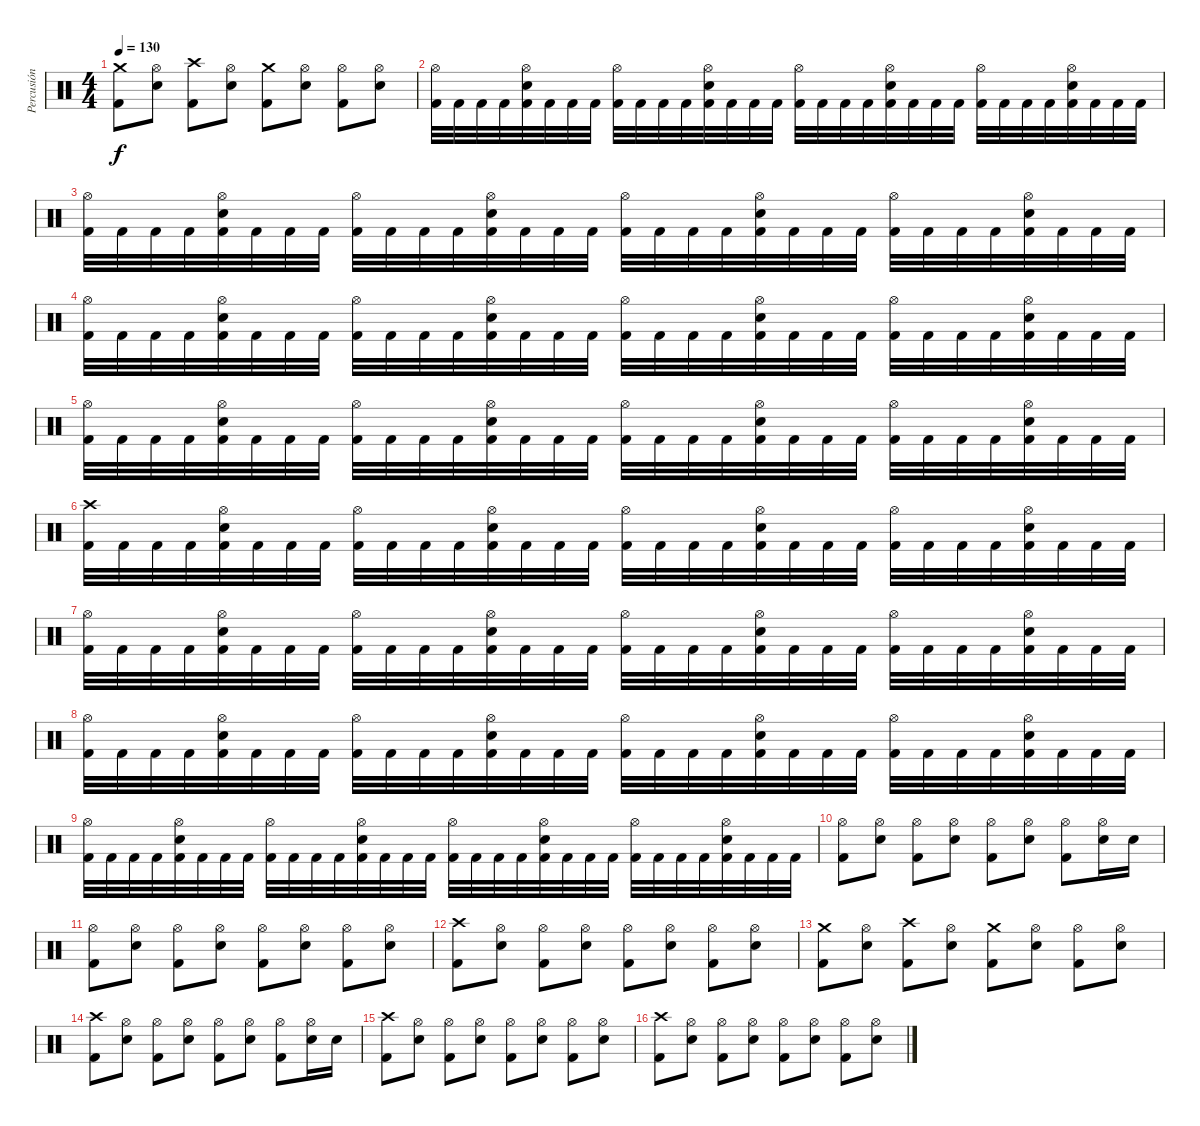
\track ("Percusión" "Percusión") {instrument percussion}
\staff {score}
\articulation defaults
\ts (4 4)
\tempo 130
\clef neutral
\ks c
("Crash medium (hit)" "Kick (hit) 2").8{dy f} ("Hi-Hat (open)" "Snare (hit) 2").8 ("Crash high (hit)" "Kick (hit) 2").8 ("Hi-Hat (open)" "Snare (hit) 2").8 ("Crash medium (hit)" "Kick (hit) 2").8 ("Hi-Hat (open)" "Snare (hit) 2").8 ("Hi-Hat (open)" "Kick (hit) 2").8 ("Hi-Hat (open)" "Snare (hit) 2").8 |
("Hi-Hat (open)" "Kick (hit) 2").32 "Kick (hit) 2".32 "Kick (hit) 2".32 "Kick (hit) 2".32 ("Hi-Hat (open)" "Snare (hit) 2" "Kick (hit) 2").32 "Kick (hit) 2".32 "Kick (hit) 2".32 "Kick (hit) 2".32 ("Hi-Hat (open)" "Kick (hit) 2").32 "Kick (hit) 2".32 "Kick (hit) 2".32 "Kick (hit) 2".32 ("Hi-Hat (open)" "Snare (hit) 2" "Kick (hit) 2").32 "Kick (hit) 2".32 "Kick (hit) 2".32 "Kick (hit) 2".32 ("Hi-Hat (open)" "Kick (hit) 2").32 "Kick (hit) 2".32 "Kick (hit) 2".32 "Kick (hit) 2".32 ("Hi-Hat (open)" "Snare (hit) 2" "Kick (hit) 2").32 "Kick (hit) 2".32 "Kick (hit) 2".32 "Kick (hit) 2".32 ("Hi-Hat (open)" "Kick (hit) 2").32 "Kick (hit) 2".32 "Kick (hit) 2".32 "Kick (hit) 2".32 ("Hi-Hat (open)" "Snare (hit) 2" "Kick (hit) 2").32 "Kick (hit) 2".32 "Kick (hit) 2".32 "Kick (hit) 2".32 |
("Hi-Hat (open)" "Kick (hit) 2").32 "Kick (hit) 2".32 "Kick (hit) 2".32 "Kick (hit) 2".32 ("Hi-Hat (open)" "Snare (hit) 2" "Kick (hit) 2").32 "Kick (hit) 2".32 "Kick (hit) 2".32 "Kick (hit) 2".32 ("Hi-Hat (open)" "Kick (hit) 2").32 "Kick (hit) 2".32 "Kick (hit) 2".32 "Kick (hit) 2".32 ("Hi-Hat (open)" "Snare (hit) 2" "Kick (hit) 2").32 "Kick (hit) 2".32 "Kick (hit) 2".32 "Kick (hit) 2".32 ("Hi-Hat (open)" "Kick (hit) 2").32 "Kick (hit) 2".32 "Kick (hit) 2".32 "Kick (hit) 2".32 ("Hi-Hat (open)" "Snare (hit) 2" "Kick (hit) 2").32 "Kick (hit) 2".32 "Kick (hit) 2".32 "Kick (hit) 2".32 ("Hi-Hat (open)" "Kick (hit) 2").32 "Kick (hit) 2".32 "Kick (hit) 2".32 "Kick (hit) 2".32 ("Hi-Hat (open)" "Snare (hit) 2" "Kick (hit) 2").32 "Kick (hit) 2".32 "Kick (hit) 2".32 "Kick (hit) 2".32 |
("Hi-Hat (open)" "Kick (hit) 2").32 "Kick (hit) 2".32 "Kick (hit) 2".32 "Kick (hit) 2".32 ("Hi-Hat (open)" "Snare (hit) 2" "Kick (hit) 2").32 "Kick (hit) 2".32 "Kick (hit) 2".32 "Kick (hit) 2".32 ("Hi-Hat (open)" "Kick (hit) 2").32 "Kick (hit) 2".32 "Kick (hit) 2".32 "Kick (hit) 2".32 ("Hi-Hat (open)" "Snare (hit) 2" "Kick (hit) 2").32 "Kick (hit) 2".32 "Kick (hit) 2".32 "Kick (hit) 2".32 ("Hi-Hat (open)" "Kick (hit) 2").32 "Kick (hit) 2".32 "Kick (hit) 2".32 "Kick (hit) 2".32 ("Hi-Hat (open)" "Snare (hit) 2" "Kick (hit) 2").32 "Kick (hit) 2".32 "Kick (hit) 2".32 "Kick (hit) 2".32 ("Hi-Hat (open)" "Kick (hit) 2").32 "Kick (hit) 2".32 "Kick (hit) 2".32 "Kick (hit) 2".32 ("Hi-Hat (open)" "Snare (hit) 2" "Kick (hit) 2").32 "Kick (hit) 2".32 "Kick (hit) 2".32 "Kick (hit) 2".32 |
("Hi-Hat (open)" "Kick (hit) 2").32 "Kick (hit) 2".32 "Kick (hit) 2".32 "Kick (hit) 2".32 ("Hi-Hat (open)" "Snare (hit) 2" "Kick (hit) 2").32 "Kick (hit) 2".32 "Kick (hit) 2".32 "Kick (hit) 2".32 ("Hi-Hat (open)" "Kick (hit) 2").32 "Kick (hit) 2".32 "Kick (hit) 2".32 "Kick (hit) 2".32 ("Hi-Hat (open)" "Snare (hit) 2" "Kick (hit) 2").32 "Kick (hit) 2".32 "Kick (hit) 2".32 "Kick (hit) 2".32 ("Hi-Hat (open)" "Kick (hit) 2").32 "Kick (hit) 2".32 "Kick (hit) 2".32 "Kick (hit) 2".32 ("Hi-Hat (open)" "Snare (hit) 2" "Kick (hit) 2").32 "Kick (hit) 2".32 "Kick (hit) 2".32 "Kick (hit) 2".32 ("Hi-Hat (open)" "Kick (hit) 2").32 "Kick (hit) 2".32 "Kick (hit) 2".32 "Kick (hit) 2".32 ("Hi-Hat (open)" "Snare (hit) 2" "Kick (hit) 2").32 "Kick (hit) 2".32 "Kick (hit) 2".32 "Kick (hit) 2".32 |
("Crash high (hit)" "Kick (hit) 2").32 "Kick (hit) 2".32 "Kick (hit) 2".32 "Kick (hit) 2".32 ("Hi-Hat (open)" "Snare (hit) 2" "Kick (hit) 2").32 "Kick (hit) 2".32 "Kick (hit) 2".32 "Kick (hit) 2".32 ("Hi-Hat (open)" "Kick (hit) 2").32 "Kick (hit) 2".32 "Kick (hit) 2".32 "Kick (hit) 2".32 ("Hi-Hat (open)" "Snare (hit) 2" "Kick (hit) 2").32 "Kick (hit) 2".32 "Kick (hit) 2".32 "Kick (hit) 2".32 ("Hi-Hat (open)" "Kick (hit) 2").32 "Kick (hit) 2".32 "Kick (hit) 2".32 "Kick (hit) 2".32 ("Hi-Hat (open)" "Snare (hit) 2" "Kick (hit) 2").32 "Kick (hit) 2".32 "Kick (hit) 2".32 "Kick (hit) 2".32 ("Hi-Hat (open)" "Kick (hit) 2").32 "Kick (hit) 2".32 "Kick (hit) 2".32 "Kick (hit) 2".32 ("Hi-Hat (open)" "Snare (hit) 2" "Kick (hit) 2").32 "Kick (hit) 2".32 "Kick (hit) 2".32 "Kick (hit) 2".32 |
("Hi-Hat (open)" "Kick (hit) 2").32 "Kick (hit) 2".32 "Kick (hit) 2".32 "Kick (hit) 2".32 ("Hi-Hat (open)" "Snare (hit) 2" "Kick (hit) 2").32 "Kick (hit) 2".32 "Kick (hit) 2".32 "Kick (hit) 2".32 ("Hi-Hat (open)" "Kick (hit) 2").32 "Kick (hit) 2".32 "Kick (hit) 2".32 "Kick (hit) 2".32 ("Hi-Hat (open)" "Snare (hit) 2" "Kick (hit) 2").32 "Kick (hit) 2".32 "Kick (hit) 2".32 "Kick (hit) 2".32 ("Hi-Hat (open)" "Kick (hit) 2").32 "Kick (hit) 2".32 "Kick (hit) 2".32 "Kick (hit) 2".32 ("Hi-Hat (open)" "Snare (hit) 2" "Kick (hit) 2").32 "Kick (hit) 2".32 "Kick (hit) 2".32 "Kick (hit) 2".32 ("Hi-Hat (open)" "Kick (hit) 2").32 "Kick (hit) 2".32 "Kick (hit) 2".32 "Kick (hit) 2".32 ("Hi-Hat (open)" "Snare (hit) 2" "Kick (hit) 2").32 "Kick (hit) 2".32 "Kick (hit) 2".32 "Kick (hit) 2".32 |
("Hi-Hat (open)" "Kick (hit) 2").32 "Kick (hit) 2".32 "Kick (hit) 2".32 "Kick (hit) 2".32 ("Hi-Hat (open)" "Snare (hit) 2" "Kick (hit) 2").32 "Kick (hit) 2".32 "Kick (hit) 2".32 "Kick (hit) 2".32 ("Hi-Hat (open)" "Kick (hit) 2").32 "Kick (hit) 2".32 "Kick (hit) 2".32 "Kick (hit) 2".32 ("Hi-Hat (open)" "Snare (hit) 2" "Kick (hit) 2").32 "Kick (hit) 2".32 "Kick (hit) 2".32 "Kick (hit) 2".32 ("Hi-Hat (open)" "Kick (hit) 2").32 "Kick (hit) 2".32 "Kick (hit) 2".32 "Kick (hit) 2".32 ("Hi-Hat (open)" "Snare (hit) 2" "Kick (hit) 2").32 "Kick (hit) 2".32 "Kick (hit) 2".32 "Kick (hit) 2".32 ("Hi-Hat (open)" "Kick (hit) 2").32 "Kick (hit) 2".32 "Kick (hit) 2".32 "Kick (hit) 2".32 ("Hi-Hat (open)" "Snare (hit) 2" "Kick (hit) 2").32 "Kick (hit) 2".32 "Kick (hit) 2".32 "Kick (hit) 2".32 |
("Hi-Hat (open)" "Kick (hit) 2").32 "Kick (hit) 2".32 "Kick (hit) 2".32 "Kick (hit) 2".32 ("Hi-Hat (open)" "Snare (hit) 2" "Kick (hit) 2").32 "Kick (hit) 2".32 "Kick (hit) 2".32 "Kick (hit) 2".32 ("Hi-Hat (open)" "Kick (hit) 2").32 "Kick (hit) 2".32 "Kick (hit) 2".32 "Kick (hit) 2".32 ("Hi-Hat (open)" "Snare (hit) 2" "Kick (hit) 2").32 "Kick (hit) 2".32 "Kick (hit) 2".32 "Kick (hit) 2".32 ("Hi-Hat (open)" "Kick (hit) 2").32 "Kick (hit) 2".32 "Kick (hit) 2".32 "Kick (hit) 2".32 ("Hi-Hat (open)" "Snare (hit) 2" "Kick (hit) 2").32 "Kick (hit) 2".32 "Kick (hit) 2".32 "Kick (hit) 2".32 ("Hi-Hat (open)" "Kick (hit) 2").32 "Kick (hit) 2".32 "Kick (hit) 2".32 "Kick (hit) 2".32 ("Hi-Hat (open)" "Snare (hit) 2" "Kick (hit) 2").32 "Kick (hit) 2".32 "Kick (hit) 2".32 "Kick (hit) 2".32 |
("Hi-Hat (open)" "Kick (hit) 2").8 ("Hi-Hat (open)" "Snare (hit) 2").8 ("Hi-Hat (open)" "Kick (hit) 2").8 ("Hi-Hat (open)" "Snare (hit) 2").8 ("Hi-Hat (open)" "Kick (hit) 2").8 ("Hi-Hat (open)" "Snare (hit) 2").8 ("Hi-Hat (open)" "Kick (hit) 2").8 ("Hi-Hat (open)" "Snare (hit) 2").16 "Snare (hit) 2".16 |
("Hi-Hat (open)" "Kick (hit) 2").8 ("Hi-Hat (open)" "Snare (hit) 2").8 ("Hi-Hat (open)" "Kick (hit) 2").8 ("Hi-Hat (open)" "Snare (hit) 2").8 ("Hi-Hat (open)" "Kick (hit) 2").8 ("Hi-Hat (open)" "Snare (hit) 2").8 ("Hi-Hat (open)" "Kick (hit) 2").8 ("Hi-Hat (open)" "Snare (hit) 2").8 |
("Crash high (hit)" "Kick (hit) 2").8 ("Hi-Hat (open)" "Snare (hit) 2").8 ("Hi-Hat (open)" "Kick (hit) 2").8 ("Hi-Hat (open)" "Snare (hit) 2").8 ("Hi-Hat (open)" "Kick (hit) 2").8 ("Hi-Hat (open)" "Snare (hit) 2").8 ("Hi-Hat (open)" "Kick (hit) 2").8 ("Hi-Hat (open)" "Snare (hit) 2").8 |
("Crash medium (hit)" "Kick (hit) 2").8 ("Hi-Hat (open)" "Snare (hit) 2").8 ("Crash high (hit)" "Kick (hit) 2").8 ("Hi-Hat (open)" "Snare (hit) 2").8 ("Crash medium (hit)" "Kick (hit) 2").8 ("Hi-Hat (open)" "Snare (hit) 2").8 ("Hi-Hat (open)" "Kick (hit) 2").8 ("Hi-Hat (open)" "Snare (hit) 2").8 |
("Crash high (hit)" "Kick (hit) 2").8 ("Hi-Hat (open)" "Snare (hit) 2").8 ("Hi-Hat (open)" "Kick (hit) 2").8 ("Hi-Hat (open)" "Snare (hit) 2").8 ("Hi-Hat (open)" "Kick (hit) 2").8 ("Hi-Hat (open)" "Snare (hit) 2").8 ("Hi-Hat (open)" "Kick (hit) 2").8 ("Hi-Hat (open)" "Snare (hit) 2").16 "Snare (hit) 2".16 |
("Crash high (hit)" "Kick (hit) 2").8 ("Hi-Hat (open)" "Snare (hit) 2").8 ("Hi-Hat (open)" "Kick (hit) 2").8 ("Hi-Hat (open)" "Snare (hit) 2").8 ("Hi-Hat (open)" "Kick (hit) 2").8 ("Hi-Hat (open)" "Snare (hit) 2").8 ("Hi-Hat (open)" "Kick (hit) 2").8 ("Hi-Hat (open)" "Snare (hit) 2").8 |
("Crash high (hit)" "Kick (hit) 2").8 ("Hi-Hat (open)" "Snare (hit) 2").8 ("Hi-Hat (open)" "Kick (hit) 2").8 ("Hi-Hat (open)" "Snare (hit) 2").8 ("Hi-Hat (open)" "Kick (hit) 2").8 ("Hi-Hat (open)" "Snare (hit) 2").8 ("Hi-Hat (open)" "Kick (hit) 2").8 ("Hi-Hat (open)" "Snare (hit) 2").8
